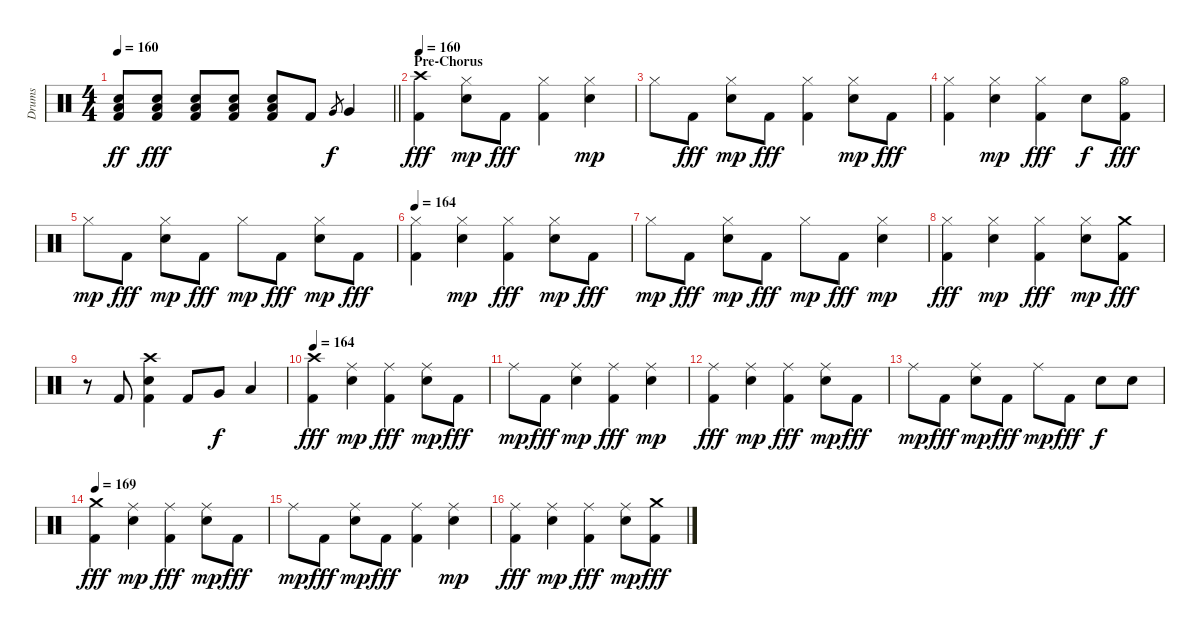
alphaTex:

\track ("Drums" "Drums") {instrument percussion}
\staff {score}
\articulation defaults
\ts (4 4)
\tempo 160
\clef neutral
\barLineRight lightlight
\ks c
("Electric Snare (hit)" "Low Floor Tom (hit)" "Kick (hit) 2").8{dy ff} ("Electric Snare (hit)" "Low Floor Tom (hit)" "Kick (hit) 2").8{dy fff} ("Electric Snare (hit)" "Low Floor Tom (hit)" "Kick (hit) 2").8 ("Electric Snare (hit)" "Low Floor Tom (hit)" "Kick (hit) 2").8 ("Electric Snare (hit)" "Low Floor Tom (hit)" "Kick (hit) 2").8 "Kick (hit) 2".8 "Very Low Tom (hit)".8{gr dy f} "Very Low Tom (hit)".4 |
\section ("" "Pre-Chorus")
\tempo 160
("Crash high (hit)" "Kick (hit) 2").4{dy fff} ("Hi-Hat (closed)" "Electric Snare (hit)").8{dy mp} "Kick (hit) 2".8{dy fff} ("Hi-Hat (closed)" "Kick (hit) 2").4 ("Hi-Hat (closed)" "Electric Snare (hit)").4{dy mp} |
"Hi-Hat (closed)".8 "Kick (hit) 2".8{dy fff} ("Hi-Hat (closed)" "Electric Snare (hit)").8{dy mp} "Kick (hit) 2".8{dy fff} ("Hi-Hat (closed)" "Kick (hit) 2").4 ("Hi-Hat (closed)" "Electric Snare (hit)").8{dy mp} "Kick (hit) 2".8{dy fff} |
("Hi-Hat (closed)" "Kick (hit) 2").4 ("Hi-Hat (closed)" "Electric Snare (hit)").4{dy mp} ("Hi-Hat (closed)" "Kick (hit) 2").4{dy fff} "Electric Snare (hit)".8{dy f} ("Hi-Hat (open)" "Kick (hit) 2").8{dy fff} |
"Hi-Hat (closed)".8{dy mp} "Kick (hit) 2".8{dy fff} ("Hi-Hat (closed)" "Electric Snare (hit)").8{dy mp} "Kick (hit) 2".8{dy fff} "Hi-Hat (closed)".8{dy mp} "Kick (hit) 2".8{dy fff} ("Hi-Hat (closed)" "Electric Snare (hit)").8{dy mp} "Kick (hit) 2".8{dy fff} |
\tempo 164
("Hi-Hat (closed)" "Kick (hit) 2").4 ("Hi-Hat (closed)" "Electric Snare (hit)").4{dy mp} ("Hi-Hat (closed)" "Kick (hit) 2").4{dy fff} ("Hi-Hat (closed)" "Electric Snare (hit)").8{dy mp} "Kick (hit) 2".8{dy fff} |
"Hi-Hat (closed)".8{dy mp} "Kick (hit) 2".8{dy fff} ("Hi-Hat (closed)" "Electric Snare (hit)").8{dy mp} "Kick (hit) 2".8{dy fff} "Hi-Hat (closed)".8{dy mp} "Kick (hit) 2".8{dy fff} ("Hi-Hat (closed)" "Electric Snare (hit)").4{dy mp} |
("Hi-Hat (closed)" "Kick (hit) 2").4{dy fff} ("Hi-Hat (closed)" "Electric Snare (hit)").4{dy mp} ("Hi-Hat (closed)" "Kick (hit) 2").4{dy fff} ("Hi-Hat (closed)" "Electric Snare (hit)").8{dy mp} ("Crash medium (hit)" "Kick (hit) 2").8{dy fff} |
r.8 "Kick (hit) 2".8 ("Crash high (hit)" "Electric Snare (hit)" "Kick (hit) 2").4 "Kick (hit) 2".8 "Very Low Tom (hit)".8{dy f} "Low Floor Tom (hit)".4 |
\tempo 164
("Crash high (hit)" "Kick (hit) 2").4{dy fff} ("Ride (middle)" "Electric Snare (hit)").4{dy mp} ("Ride (middle)" "Kick (hit) 2").4{dy fff} ("Ride (middle)" "Electric Snare (hit)").8{dy mp} "Kick (hit) 2".8{dy fff} |
"Ride (middle)".8{dy mp} "Kick (hit) 2".8{dy fff} ("Ride (middle)" "Electric Snare (hit)").4{dy mp} ("Ride (middle)" "Kick (hit) 2").4{dy fff} ("Ride (middle)" "Electric Snare (hit)").4{dy mp} |
("Ride (middle)" "Kick (hit) 2").4{dy fff} ("Ride (middle)" "Electric Snare (hit)").4{dy mp} ("Ride (middle)" "Kick (hit) 2").4{dy fff} ("Ride (middle)" "Electric Snare (hit)").8{dy mp} "Kick (hit) 2".8{dy fff} |
"Ride (middle)".8{dy mp} "Kick (hit) 2".8{dy fff} ("Ride (middle)" "Electric Snare (hit)").8{dy mp} "Kick (hit) 2".8{dy fff} "Ride (middle)".8{dy mp} "Kick (hit) 2".8{dy fff} "Electric Snare (hit)".8{dy f} "Electric Snare (hit)".8 |
\tempo 169
("Crash medium (hit)" "Kick (hit) 2").4{dy fff} ("Ride (middle)" "Electric Snare (hit)").4{dy mp} ("Ride (middle)" "Kick (hit) 2").4{dy fff} ("Ride (middle)" "Electric Snare (hit)").8{dy mp} "Kick (hit) 2".8{dy fff} |
"Ride (middle)".8{dy mp} "Kick (hit) 2".8{dy fff} ("Ride (middle)" "Electric Snare (hit)").8{dy mp} "Kick (hit) 2".8{dy fff} ("Ride (middle)" "Kick (hit) 2").4 ("Ride (middle)" "Electric Snare (hit)").4{dy mp} |
("Ride (middle)" "Kick (hit) 2").4{dy fff} ("Ride (middle)" "Electric Snare (hit)").4{dy mp} ("Ride (middle)" "Kick (hit) 2").4{dy fff} ("Ride (middle)" "Electric Snare (hit)").8{dy mp} ("Crash medium (hit)" "Kick (hit) 2").8{dy fff}
